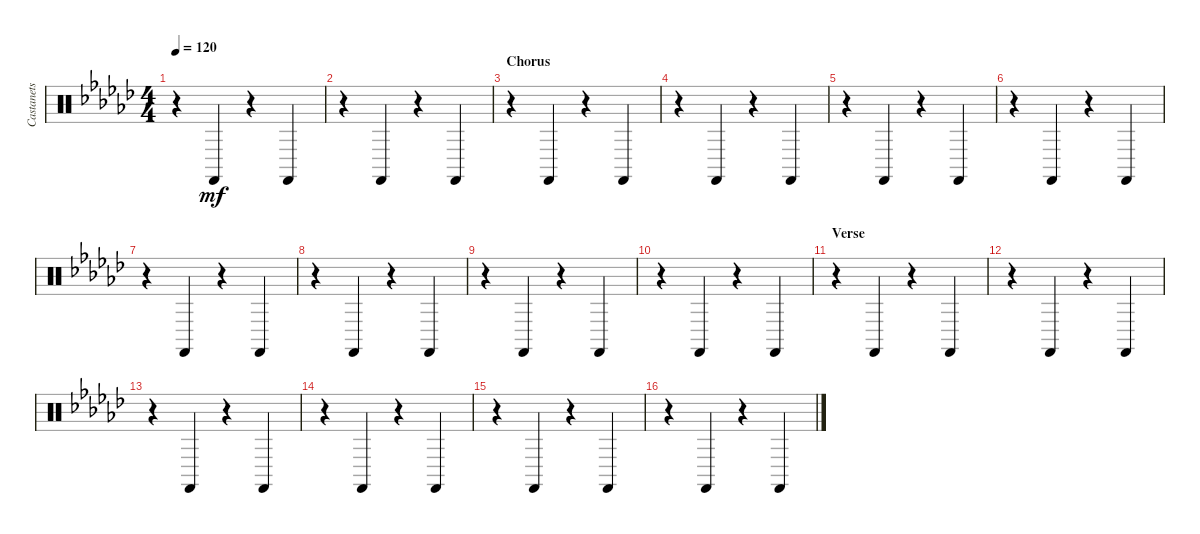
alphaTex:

\track ("Castanets" "Castanets") {instrument percussion}
\staff {score}
\articulation defaults
\ts (4 4)
\tempo 120
\clef neutral
\ks ebminor
r.4{dy mf} "Castanets (hit)".4 r.4 "Castanets (hit)".4 |
r.4 "Castanets (hit)".4 r.4 "Castanets (hit)".4 |
\section ("" "Chorus")
r.4 "Castanets (hit)".4 r.4 "Castanets (hit)".4 |
r.4 "Castanets (hit)".4 r.4 "Castanets (hit)".4 |
r.4 "Castanets (hit)".4 r.4 "Castanets (hit)".4 |
r.4 "Castanets (hit)".4 r.4 "Castanets (hit)".4 |
r.4 "Castanets (hit)".4 r.4 "Castanets (hit)".4 |
r.4 "Castanets (hit)".4 r.4 "Castanets (hit)".4 |
r.4 "Castanets (hit)".4 r.4 "Castanets (hit)".4 |
r.4 "Castanets (hit)".4 r.4 "Castanets (hit)".4 |
\section ("" "Verse")
r.4 "Castanets (hit)".4 r.4 "Castanets (hit)".4 |
r.4 "Castanets (hit)".4 r.4 "Castanets (hit)".4 |
r.4 "Castanets (hit)".4 r.4 "Castanets (hit)".4 |
r.4 "Castanets (hit)".4 r.4 "Castanets (hit)".4 |
r.4 "Castanets (hit)".4 r.4 "Castanets (hit)".4 |
r.4 "Castanets (hit)".4 r.4 "Castanets (hit)".4
